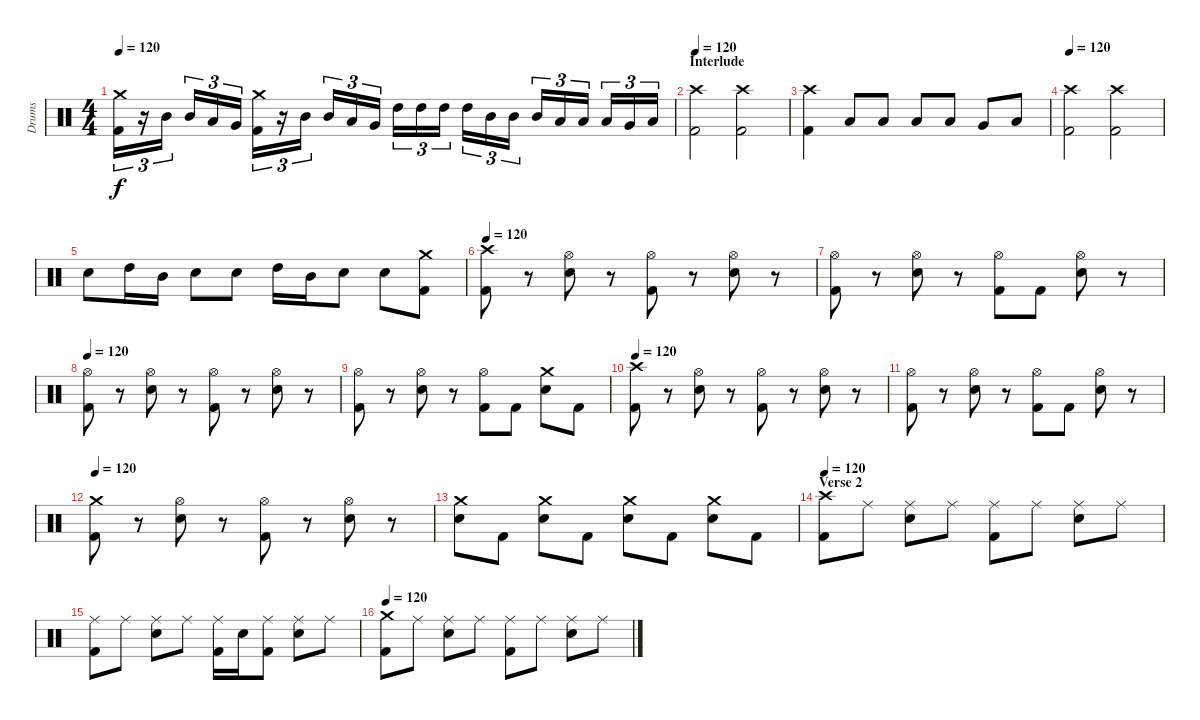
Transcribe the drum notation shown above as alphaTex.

\track ("Drums" "Drums") {instrument percussion}
\staff {score}
\articulation defaults
\ts (4 4)
\tempo 120
\clef neutral
\ks c
("Crash medium (hit)" "Kick (hit) 2").16{tu (3 2) dy f} r.16{tu (3 2)} "Mid Tom (hit)".16{tu (3 2)} "Mid Tom (hit)".16{tu (3 2)} "Low Tom (hit)".16{tu (3 2)} "Very Low Tom (hit)".16{tu (3 2)} ("Crash medium (hit)" "Kick (hit) 2").16{tu (3 2)} r.16{tu (3 2)} "Mid Tom (hit)".16{tu (3 2)} "Mid Tom (hit)".16{tu (3 2)} "Low Tom (hit)".16{tu (3 2)} "Very Low Tom (hit)".16{tu (3 2)} "High Tom (hit)".16{tu (3 2)} "High Tom (hit)".16{tu (3 2)} "High Tom (hit)".16{tu (3 2)} "High Tom (hit)".16{tu (3 2)} "Mid Tom (hit)".16{tu (3 2)} "Mid Tom (hit)".16{tu (3 2)} "Mid Tom (hit)".16{tu (3 2)} "Low Tom (hit)".16{tu (3 2)} "Low Tom (hit)".16{tu (3 2)} "Low Tom (hit)".16{tu (3 2)} "Very Low Tom (hit)".16{tu (3 2)} "Low Floor Tom (hit)".16{tu (3 2)} |
\section ("" "Interlude")
\tempo 120
("Crash high (hit)" "Kick (hit) 2").2 ("Crash high (hit)" "Kick (hit) 2").2 |
("Crash high (hit)" "Kick (hit) 2").4 "Low Tom (hit)".8 "Low Tom (hit)".8 "Low Tom (hit)".8 "Low Tom (hit)".8 "Very Low Tom (hit)".8 "Low Floor Tom (hit)".8 |
\tempo 120
("Crash high (hit)" "Kick (hit) 2").2 ("Crash high (hit)" "Kick (hit) 2").2 |
"Electric Snare (hit)".8 "High Tom (hit)".16 "Mid Tom (hit)".16 "Electric Snare (hit)".8 "Electric Snare (hit)".8 "High Tom (hit)".16 "Mid Tom (hit)".16 "Electric Snare (hit)".8 "Electric Snare (hit)".8 ("Crash medium (hit)" "Kick (hit) 2").8 |
\tempo 120
("Crash high (hit)" "Kick (hit) 2").8 r.8 ("Hi-Hat (open)" "Electric Snare (hit)").8 r.8 ("Hi-Hat (open)" "Kick (hit) 2").8 r.8 ("Hi-Hat (open)" "Electric Snare (hit)").8 r.8 |
("Hi-Hat (open)" "Kick (hit) 2").8 r.8 ("Hi-Hat (open)" "Electric Snare (hit)").8 r.8 ("Hi-Hat (open)" "Kick (hit) 2").8 "Kick (hit) 2".8 ("Hi-Hat (open)" "Electric Snare (hit)").8 r.8 |
\tempo 120
("Hi-Hat (open)" "Kick (hit) 2").8 r.8 ("Hi-Hat (open)" "Electric Snare (hit)").8 r.8 ("Hi-Hat (open)" "Kick (hit) 2").8 r.8 ("Hi-Hat (open)" "Electric Snare (hit)").8 r.8 |
("Hi-Hat (open)" "Kick (hit) 2").8 r.8 ("Hi-Hat (open)" "Electric Snare (hit)").8 r.8 ("Hi-Hat (open)" "Kick (hit) 2").8 "Kick (hit) 2".8 ("Crash medium (hit)" "Electric Snare (hit)").8 "Kick (hit) 2".8 |
\tempo 120
("Crash high (hit)" "Kick (hit) 2").8 r.8 ("Hi-Hat (open)" "Electric Snare (hit)").8 r.8 ("Hi-Hat (open)" "Kick (hit) 2").8 r.8 ("Hi-Hat (open)" "Electric Snare (hit)").8 r.8 |
("Hi-Hat (open)" "Kick (hit) 2").8 r.8 ("Hi-Hat (open)" "Electric Snare (hit)").8 r.8 ("Hi-Hat (open)" "Kick (hit) 2").8 "Kick (hit) 2".8 ("Hi-Hat (open)" "Electric Snare (hit)").8 r.8 |
\tempo 120
("Crash medium (hit)" "Kick (hit) 2").8 r.8 ("Hi-Hat (open)" "Electric Snare (hit)").8 r.8 ("Hi-Hat (open)" "Kick (hit) 2").8 r.8 ("Hi-Hat (open)" "Electric Snare (hit)").8 r.8 |
("Crash medium (hit)" "Electric Snare (hit)").8 "Kick (hit) 2".8 ("Crash medium (hit)" "Electric Snare (hit)").8 "Kick (hit) 2".8 ("Crash medium (hit)" "Electric Snare (hit)").8 "Kick (hit) 2".8 ("Crash medium (hit)" "Electric Snare (hit)").8 "Kick (hit) 2".8 |
\section ("" "Verse 2")
\tempo 120
("Crash high (hit)" "Kick (hit) 2").8 "Ride (middle)".8 ("Ride (middle)" "Electric Snare (hit)").8 "Ride (middle)".8 ("Ride (middle)" "Kick (hit) 2").8 "Ride (middle)".8 ("Ride (middle)" "Electric Snare (hit)").8 "Ride (middle)".8 |
("Ride (middle)" "Kick (hit) 2").8 "Ride (middle)".8 ("Ride (middle)" "Electric Snare (hit)").8 "Ride (middle)".8 ("Ride (middle)" "Kick (hit) 2").16 "Electric Snare (hit)".16 ("Ride (middle)" "Kick (hit) 2").8 ("Ride (middle)" "Electric Snare (hit)").8 "Ride (middle)".8 |
\tempo 120
("Crash medium (hit)" "Kick (hit) 2").8 "Ride (middle)".8 ("Ride (middle)" "Electric Snare (hit)").8 "Ride (middle)".8 ("Ride (middle)" "Kick (hit) 2").8 "Ride (middle)".8 ("Ride (middle)" "Electric Snare (hit)").8 "Ride (middle)".8
